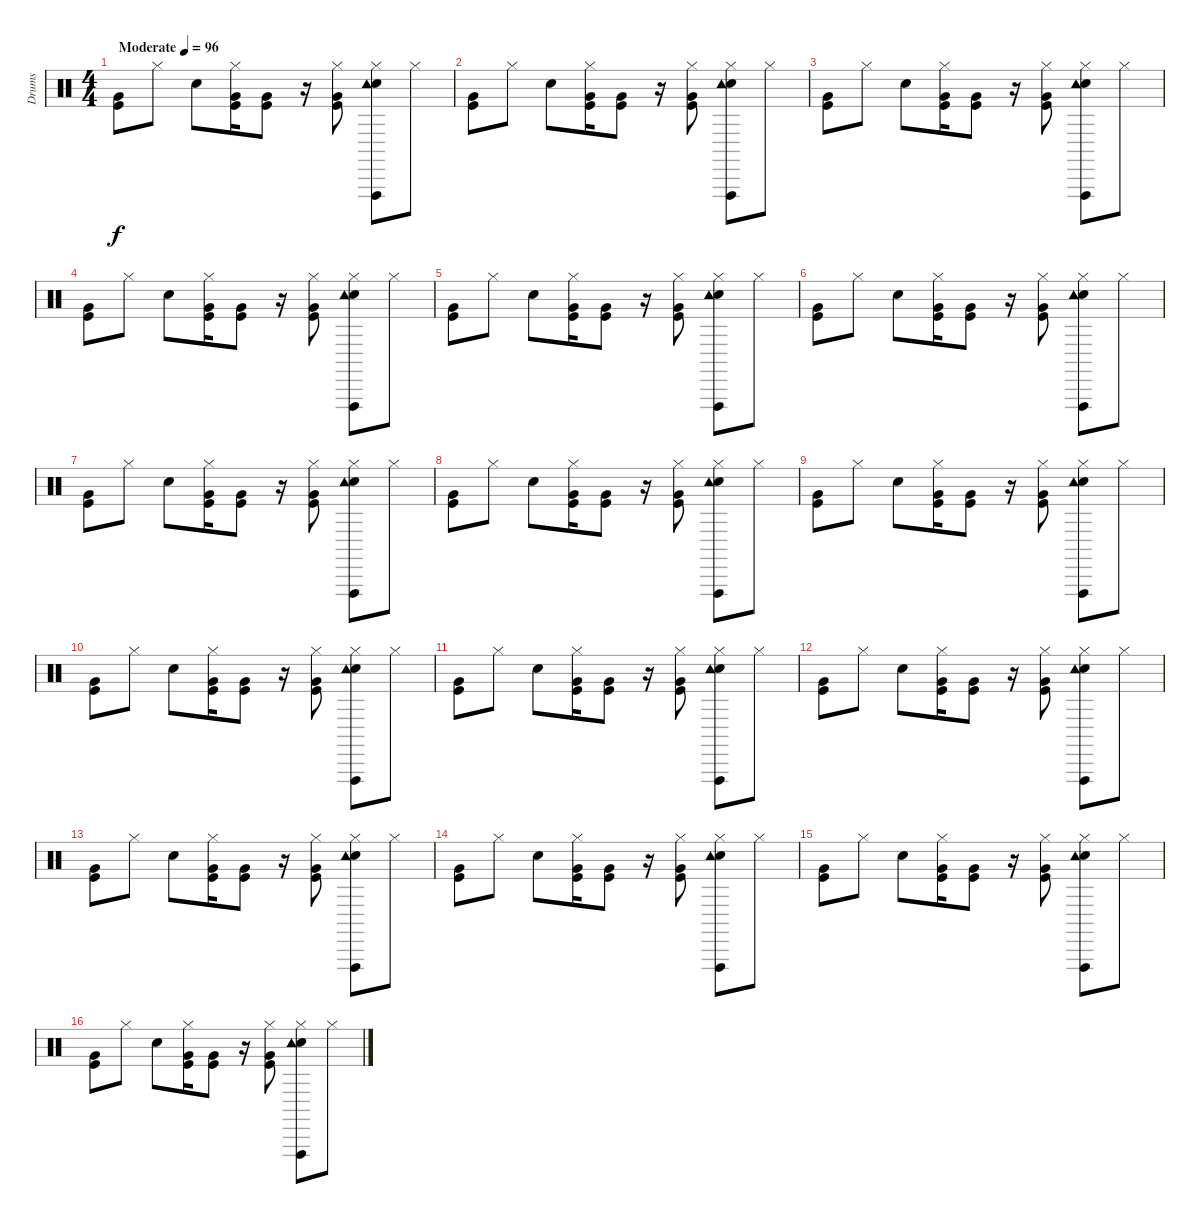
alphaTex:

\track ("Drums" "Drums") {instrument percussion}
\staff {score}
\articulation defaults
\ts (4 4)
\tempo (96 "Moderate")
\clef neutral
\ks c
("Kick (hit)" "Very Low Tom (hit)").8{dy f} "Hi-Hat (closed)".8 "Snare (hit) 2".8 ("Hi-Hat (closed)" "Kick (hit)" "Very Low Tom (hit)").16 ("Kick (hit)" "Very Low Tom (hit)").8 r.16 ("Hi-Hat (closed)" "Kick (hit)" "Very Low Tom (hit)").8 ("Hi-Hat (closed)" "Vibraslap (hit)" "Snare (hit) 2" "Tambourine (hit)").8 "Hi-Hat (closed)".8 |
("Kick (hit)" "Very Low Tom (hit)").8 "Hi-Hat (closed)".8 "Snare (hit) 2".8 ("Hi-Hat (closed)" "Kick (hit)" "Very Low Tom (hit)").16 ("Kick (hit)" "Very Low Tom (hit)").8 r.16 ("Hi-Hat (closed)" "Kick (hit)" "Very Low Tom (hit)").8 ("Hi-Hat (closed)" "Vibraslap (hit)" "Snare (hit) 2" "Tambourine (hit)").8 "Hi-Hat (closed)".8 |
("Kick (hit)" "Very Low Tom (hit)").8 "Hi-Hat (closed)".8 "Snare (hit) 2".8 ("Hi-Hat (closed)" "Kick (hit)" "Very Low Tom (hit)").16 ("Kick (hit)" "Very Low Tom (hit)").8 r.16 ("Hi-Hat (closed)" "Kick (hit)" "Very Low Tom (hit)").8 ("Hi-Hat (closed)" "Vibraslap (hit)" "Snare (hit) 2" "Tambourine (hit)").8 "Hi-Hat (closed)".8 |
("Kick (hit)" "Very Low Tom (hit)").8 "Hi-Hat (closed)".8 "Snare (hit) 2".8 ("Hi-Hat (closed)" "Kick (hit)" "Very Low Tom (hit)").16 ("Kick (hit)" "Very Low Tom (hit)").8 r.16 ("Hi-Hat (closed)" "Kick (hit)" "Very Low Tom (hit)").8 ("Hi-Hat (closed)" "Vibraslap (hit)" "Snare (hit) 2" "Tambourine (hit)").8 "Hi-Hat (closed)".8 |
("Kick (hit)" "Very Low Tom (hit)").8 "Hi-Hat (closed)".8 "Snare (hit) 2".8 ("Hi-Hat (closed)" "Kick (hit)" "Very Low Tom (hit)").16 ("Kick (hit)" "Very Low Tom (hit)").8 r.16 ("Hi-Hat (closed)" "Kick (hit)" "Very Low Tom (hit)").8 ("Hi-Hat (closed)" "Vibraslap (hit)" "Snare (hit) 2" "Tambourine (hit)").8 "Hi-Hat (closed)".8 |
("Kick (hit)" "Very Low Tom (hit)").8 "Hi-Hat (closed)".8 "Snare (hit) 2".8 ("Hi-Hat (closed)" "Kick (hit)" "Very Low Tom (hit)").16 ("Kick (hit)" "Very Low Tom (hit)").8 r.16 ("Hi-Hat (closed)" "Kick (hit)" "Very Low Tom (hit)").8 ("Hi-Hat (closed)" "Vibraslap (hit)" "Snare (hit) 2" "Tambourine (hit)").8 "Hi-Hat (closed)".8 |
("Kick (hit)" "Very Low Tom (hit)").8 "Hi-Hat (closed)".8 "Snare (hit) 2".8 ("Hi-Hat (closed)" "Kick (hit)" "Very Low Tom (hit)").16 ("Kick (hit)" "Very Low Tom (hit)").8 r.16 ("Hi-Hat (closed)" "Kick (hit)" "Very Low Tom (hit)").8 ("Hi-Hat (closed)" "Vibraslap (hit)" "Snare (hit) 2" "Tambourine (hit)").8 "Hi-Hat (closed)".8 |
("Kick (hit)" "Very Low Tom (hit)").8 "Hi-Hat (closed)".8 "Snare (hit) 2".8 ("Hi-Hat (closed)" "Kick (hit)" "Very Low Tom (hit)").16 ("Kick (hit)" "Very Low Tom (hit)").8 r.16 ("Hi-Hat (closed)" "Kick (hit)" "Very Low Tom (hit)").8 ("Hi-Hat (closed)" "Vibraslap (hit)" "Snare (hit) 2" "Tambourine (hit)").8 "Hi-Hat (closed)".8 |
("Kick (hit)" "Very Low Tom (hit)").8 "Hi-Hat (closed)".8 "Snare (hit) 2".8 ("Hi-Hat (closed)" "Kick (hit)" "Very Low Tom (hit)").16 ("Kick (hit)" "Very Low Tom (hit)").8 r.16 ("Hi-Hat (closed)" "Kick (hit)" "Very Low Tom (hit)").8 ("Hi-Hat (closed)" "Vibraslap (hit)" "Snare (hit) 2" "Tambourine (hit)").8 "Hi-Hat (closed)".8 |
("Kick (hit)" "Very Low Tom (hit)").8 "Hi-Hat (closed)".8 "Snare (hit) 2".8 ("Hi-Hat (closed)" "Kick (hit)" "Very Low Tom (hit)").16 ("Kick (hit)" "Very Low Tom (hit)").8 r.16 ("Hi-Hat (closed)" "Kick (hit)" "Very Low Tom (hit)").8 ("Hi-Hat (closed)" "Vibraslap (hit)" "Snare (hit) 2" "Tambourine (hit)").8 "Hi-Hat (closed)".8 |
("Kick (hit)" "Very Low Tom (hit)").8 "Hi-Hat (closed)".8 "Snare (hit) 2".8 ("Hi-Hat (closed)" "Kick (hit)" "Very Low Tom (hit)").16 ("Kick (hit)" "Very Low Tom (hit)").8 r.16 ("Hi-Hat (closed)" "Kick (hit)" "Very Low Tom (hit)").8 ("Hi-Hat (closed)" "Vibraslap (hit)" "Snare (hit) 2" "Tambourine (hit)").8 "Hi-Hat (closed)".8 |
("Kick (hit)" "Very Low Tom (hit)").8 "Hi-Hat (closed)".8 "Snare (hit) 2".8 ("Hi-Hat (closed)" "Kick (hit)" "Very Low Tom (hit)").16 ("Kick (hit)" "Very Low Tom (hit)").8 r.16 ("Hi-Hat (closed)" "Kick (hit)" "Very Low Tom (hit)").8 ("Hi-Hat (closed)" "Vibraslap (hit)" "Snare (hit) 2" "Tambourine (hit)").8 "Hi-Hat (closed)".8 |
("Kick (hit)" "Very Low Tom (hit)").8 "Hi-Hat (closed)".8 "Snare (hit) 2".8 ("Hi-Hat (closed)" "Kick (hit)" "Very Low Tom (hit)").16 ("Kick (hit)" "Very Low Tom (hit)").8 r.16 ("Hi-Hat (closed)" "Kick (hit)" "Very Low Tom (hit)").8 ("Hi-Hat (closed)" "Vibraslap (hit)" "Snare (hit) 2" "Tambourine (hit)").8 "Hi-Hat (closed)".8 |
("Kick (hit)" "Very Low Tom (hit)").8 "Hi-Hat (closed)".8 "Snare (hit) 2".8 ("Hi-Hat (closed)" "Kick (hit)" "Very Low Tom (hit)").16 ("Kick (hit)" "Very Low Tom (hit)").8 r.16 ("Hi-Hat (closed)" "Kick (hit)" "Very Low Tom (hit)").8 ("Hi-Hat (closed)" "Vibraslap (hit)" "Snare (hit) 2" "Tambourine (hit)").8 "Hi-Hat (closed)".8 |
("Kick (hit)" "Very Low Tom (hit)").8 "Hi-Hat (closed)".8 "Snare (hit) 2".8 ("Hi-Hat (closed)" "Kick (hit)" "Very Low Tom (hit)").16 ("Kick (hit)" "Very Low Tom (hit)").8 r.16 ("Hi-Hat (closed)" "Kick (hit)" "Very Low Tom (hit)").8 ("Hi-Hat (closed)" "Vibraslap (hit)" "Snare (hit) 2" "Tambourine (hit)").8 "Hi-Hat (closed)".8 |
("Kick (hit)" "Very Low Tom (hit)").8 "Hi-Hat (closed)".8 "Snare (hit) 2".8 ("Hi-Hat (closed)" "Kick (hit)" "Very Low Tom (hit)").16 ("Kick (hit)" "Very Low Tom (hit)").8 r.16 ("Hi-Hat (closed)" "Kick (hit)" "Very Low Tom (hit)").8 ("Hi-Hat (closed)" "Vibraslap (hit)" "Snare (hit) 2" "Tambourine (hit)").8 "Hi-Hat (closed)".8
